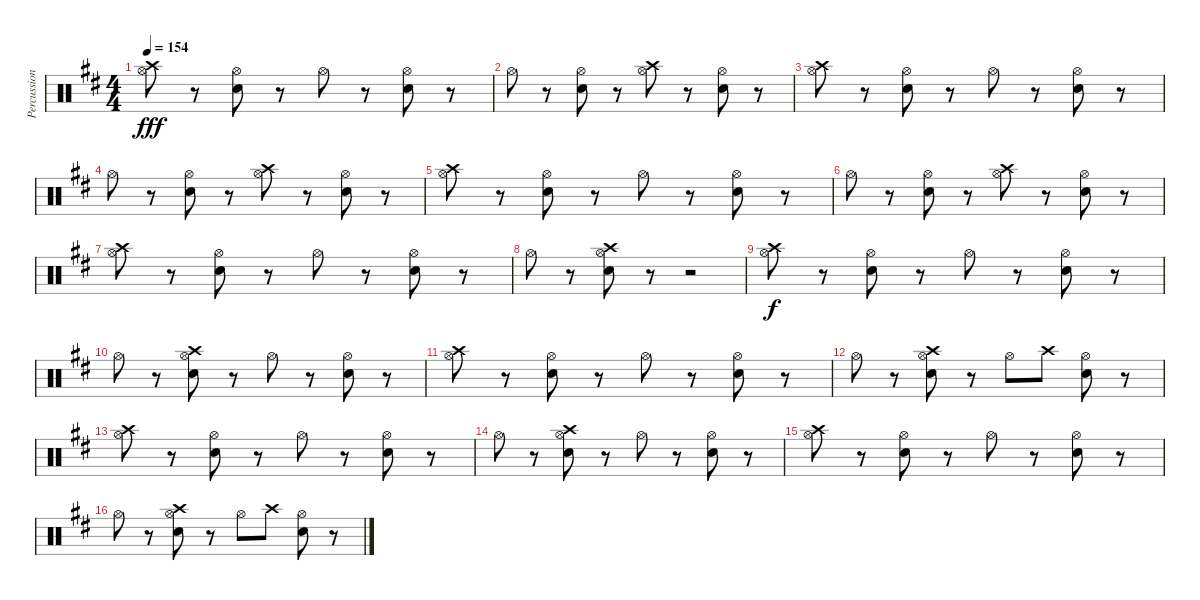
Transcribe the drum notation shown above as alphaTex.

\track ("Percussion (Mike Felumlee" "Percussion") {instrument percussion}
\staff {score}
\articulation defaults
\ts (4 4)
\tempo 154
\clef neutral
\ks bminor
("Hi-Hat (open)" "Crash high (hit)").8{dy fff} r.8 ("Hi-Hat (open)" "Electric Snare (hit)").8 r.8 "Hi-Hat (open)".8 r.8 ("Hi-Hat (open)" "Electric Snare (hit)").8 r.8 |
"Hi-Hat (open)".8 r.8 ("Hi-Hat (open)" "Electric Snare (hit)").8 r.8 ("Hi-Hat (open)" "Crash high (hit)").8 r.8 ("Hi-Hat (open)" "Electric Snare (hit)").8 r.8 |
("Hi-Hat (open)" "Crash high (hit)").8 r.8 ("Hi-Hat (open)" "Electric Snare (hit)").8 r.8 "Hi-Hat (open)".8 r.8 ("Hi-Hat (open)" "Electric Snare (hit)").8 r.8 |
"Hi-Hat (open)".8 r.8 ("Hi-Hat (open)" "Electric Snare (hit)").8 r.8 ("Hi-Hat (open)" "Crash high (hit)").8 r.8 ("Hi-Hat (open)" "Electric Snare (hit)").8 r.8 |
("Hi-Hat (open)" "Crash high (hit)").8 r.8 ("Hi-Hat (open)" "Electric Snare (hit)").8 r.8 "Hi-Hat (open)".8 r.8 ("Hi-Hat (open)" "Electric Snare (hit)").8 r.8 |
"Hi-Hat (open)".8 r.8 ("Hi-Hat (open)" "Electric Snare (hit)").8 r.8 ("Hi-Hat (open)" "Crash high (hit)").8 r.8 ("Hi-Hat (open)" "Electric Snare (hit)").8 r.8 |
("Hi-Hat (open)" "Crash high (hit)").8 r.8 ("Hi-Hat (open)" "Electric Snare (hit)").8 r.8 "Hi-Hat (open)".8 r.8 ("Hi-Hat (open)" "Electric Snare (hit)").8 r.8 |
"Hi-Hat (open)".8 r.8 ("Hi-Hat (open)" "Electric Snare (hit)" "Crash high (hit)").8 r.8 r.2 |
("Hi-Hat (open)" "Crash high (hit)").8{dy f} r.8 ("Hi-Hat (open)" "Electric Snare (hit)").8 r.8 "Hi-Hat (open)".8 r.8 ("Hi-Hat (open)" "Electric Snare (hit)").8 r.8 |
"Hi-Hat (open)".8 r.8 ("Hi-Hat (open)" "Electric Snare (hit)" "Crash high (hit)").8 r.8 "Hi-Hat (open)".8 r.8 ("Hi-Hat (open)" "Electric Snare (hit)").8 r.8 |
("Hi-Hat (open)" "Crash high (hit)").8 r.8 ("Hi-Hat (open)" "Electric Snare (hit)").8 r.8 "Hi-Hat (open)".8 r.8 ("Hi-Hat (open)" "Electric Snare (hit)").8 r.8 |
"Hi-Hat (open)".8 r.8 ("Hi-Hat (open)" "Electric Snare (hit)" "Crash high (hit)").8 r.8 "Hi-Hat (open)".8 "Crash high (hit)".8 ("Hi-Hat (open)" "Electric Snare (hit)").8 r.8 |
("Hi-Hat (open)" "Crash high (hit)").8 r.8 ("Hi-Hat (open)" "Electric Snare (hit)").8 r.8 "Hi-Hat (open)".8 r.8 ("Hi-Hat (open)" "Electric Snare (hit)").8 r.8 |
"Hi-Hat (open)".8 r.8 ("Hi-Hat (open)" "Electric Snare (hit)" "Crash high (hit)").8 r.8 "Hi-Hat (open)".8 r.8 ("Hi-Hat (open)" "Electric Snare (hit)").8 r.8 |
("Hi-Hat (open)" "Crash high (hit)").8 r.8 ("Hi-Hat (open)" "Electric Snare (hit)").8 r.8 "Hi-Hat (open)".8 r.8 ("Hi-Hat (open)" "Electric Snare (hit)").8 r.8 |
"Hi-Hat (open)".8 r.8 ("Hi-Hat (open)" "Electric Snare (hit)" "Crash high (hit)").8 r.8 "Hi-Hat (open)".8 "Crash high (hit)".8 ("Hi-Hat (open)" "Electric Snare (hit)").8 r.8
